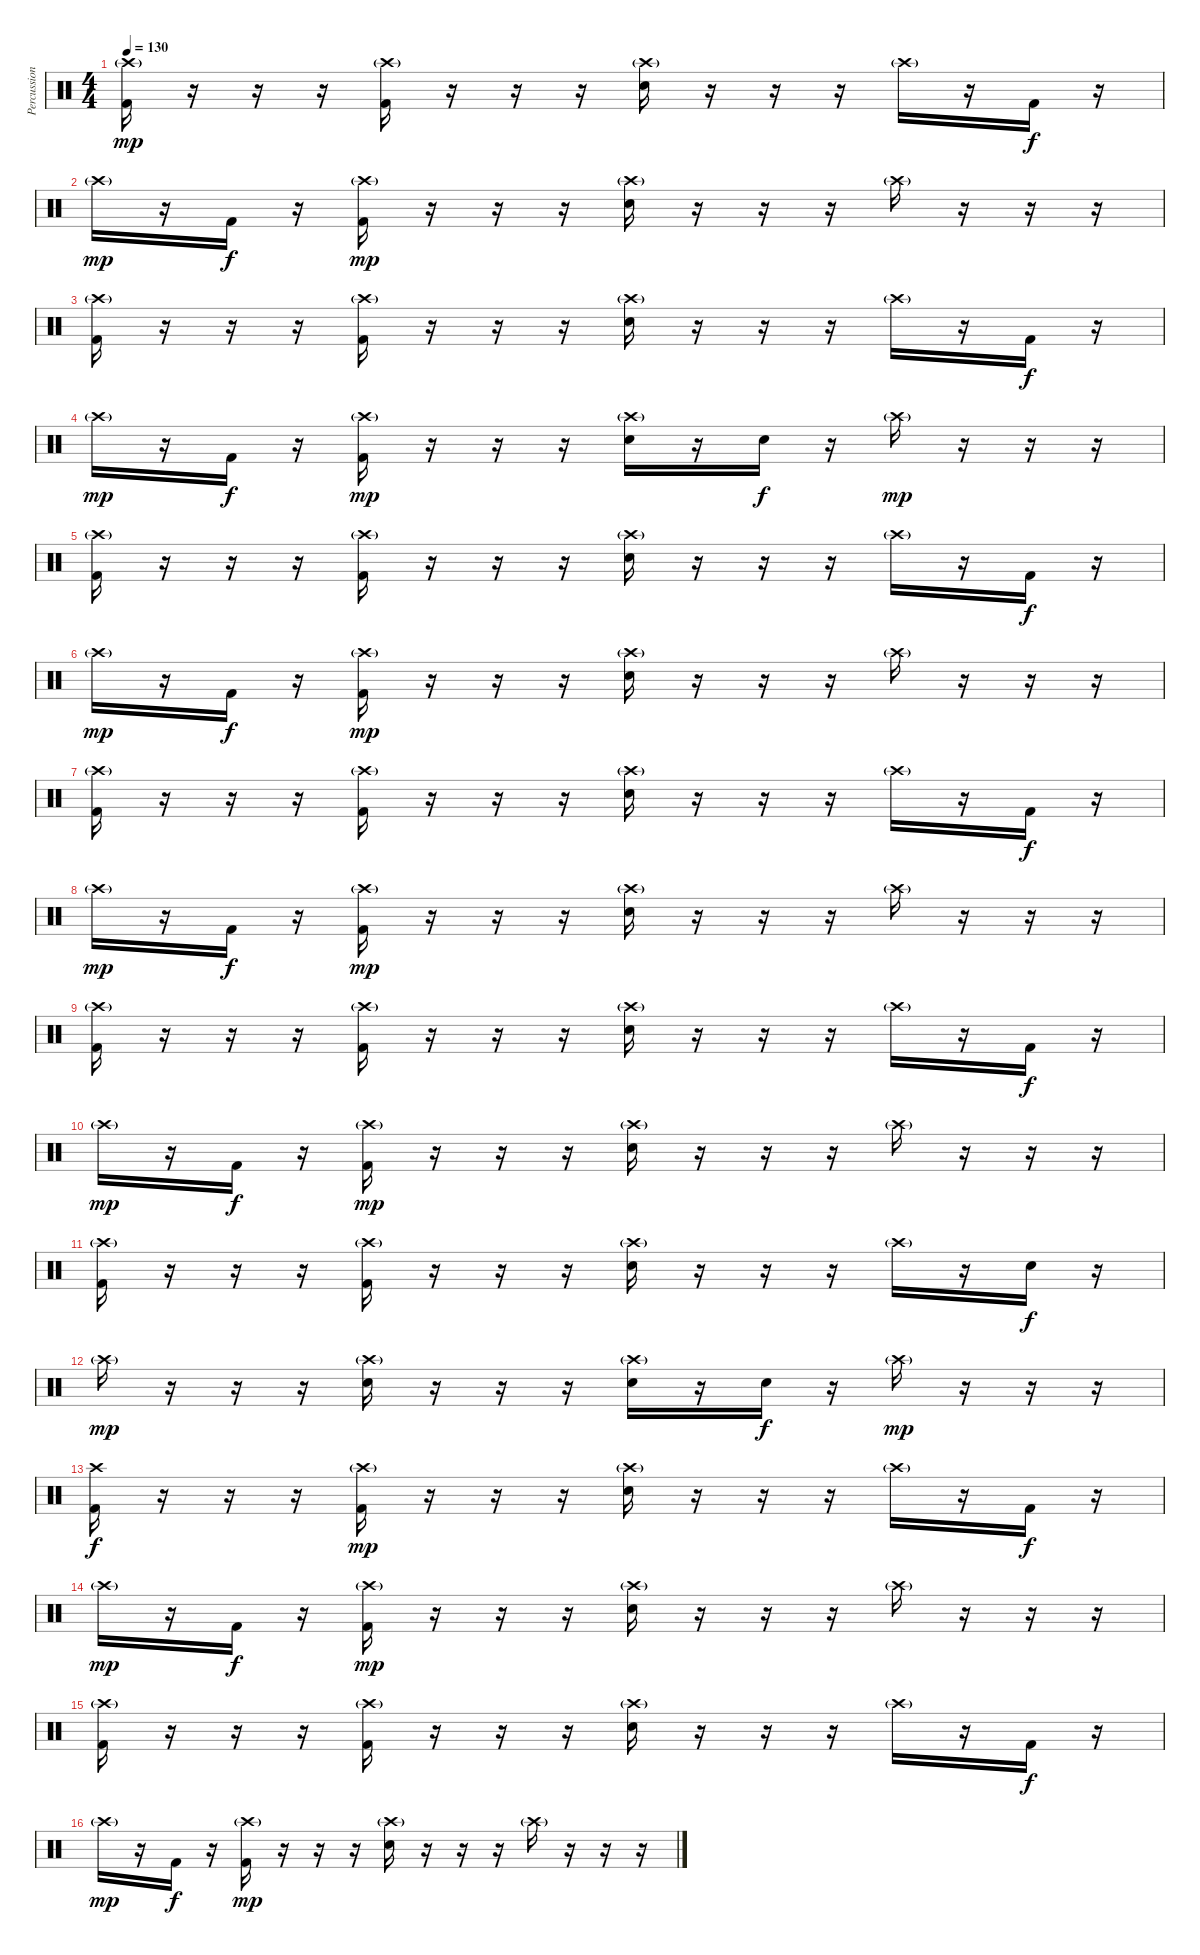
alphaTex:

\track ("Percussion" "Percussion") {instrument percussion}
\staff {score}
\articulation defaults
\ts (4 4)
\tempo 130
\clef neutral
\ks c
("Crash high (hit)"{g} "Kick (hit) 2").16{dy mp} r.16 r.16 r.16 ("Crash high (hit)"{g} "Kick (hit) 2").16 r.16 r.16 r.16 ("Crash high (hit)"{g} "Snare (hit) 2").16 r.16 r.16 r.16 "Crash high (hit)"{g}.16 r.16 "Kick (hit) 2".16{dy f} r.16 |
"Crash high (hit)"{g}.16{dy mp} r.16 "Kick (hit) 2".16{dy f} r.16 ("Crash high (hit)"{g} "Kick (hit) 2").16{dy mp} r.16 r.16 r.16 ("Crash high (hit)"{g} "Snare (hit) 2").16 r.16 r.16 r.16 "Crash high (hit)"{g}.16 r.16 r.16 r.16 |
("Crash high (hit)"{g} "Kick (hit) 2").16 r.16 r.16 r.16 ("Crash high (hit)"{g} "Kick (hit) 2").16 r.16 r.16 r.16 ("Crash high (hit)"{g} "Snare (hit) 2").16 r.16 r.16 r.16 "Crash high (hit)"{g}.16 r.16 "Kick (hit) 2".16{dy f} r.16 |
"Crash high (hit)"{g}.16{dy mp} r.16 "Kick (hit) 2".16{dy f} r.16 ("Crash high (hit)"{g} "Kick (hit) 2").16{dy mp} r.16 r.16 r.16 ("Crash high (hit)"{g} "Snare (hit) 2").16 r.16 "Snare (hit) 2".16{dy f} r.16 "Crash high (hit)"{g}.16{dy mp} r.16 r.16 r.16 |
("Crash high (hit)"{g} "Kick (hit) 2").16 r.16 r.16 r.16 ("Crash high (hit)"{g} "Kick (hit) 2").16 r.16 r.16 r.16 ("Crash high (hit)"{g} "Snare (hit) 2").16 r.16 r.16 r.16 "Crash high (hit)"{g}.16 r.16 "Kick (hit) 2".16{dy f} r.16 |
"Crash high (hit)"{g}.16{dy mp} r.16 "Kick (hit) 2".16{dy f} r.16 ("Crash high (hit)"{g} "Kick (hit) 2").16{dy mp} r.16 r.16 r.16 ("Crash high (hit)"{g} "Snare (hit) 2").16 r.16 r.16 r.16 "Crash high (hit)"{g}.16 r.16 r.16 r.16 |
("Crash high (hit)"{g} "Kick (hit) 2").16 r.16 r.16 r.16 ("Crash high (hit)"{g} "Kick (hit) 2").16 r.16 r.16 r.16 ("Crash high (hit)"{g} "Snare (hit) 2").16 r.16 r.16 r.16 "Crash high (hit)"{g}.16 r.16 "Kick (hit) 2".16{dy f} r.16 |
"Crash high (hit)"{g}.16{dy mp} r.16 "Kick (hit) 2".16{dy f} r.16 ("Crash high (hit)"{g} "Kick (hit) 2").16{dy mp} r.16 r.16 r.16 ("Crash high (hit)"{g} "Snare (hit) 2").16 r.16 r.16 r.16 "Crash high (hit)"{g}.16 r.16 r.16 r.16 |
("Crash high (hit)"{g} "Kick (hit) 2").16 r.16 r.16 r.16 ("Crash high (hit)"{g} "Kick (hit) 2").16 r.16 r.16 r.16 ("Crash high (hit)"{g} "Snare (hit) 2").16 r.16 r.16 r.16 "Crash high (hit)"{g}.16 r.16 "Kick (hit) 2".16{dy f} r.16 |
"Crash high (hit)"{g}.16{dy mp} r.16 "Kick (hit) 2".16{dy f} r.16 ("Crash high (hit)"{g} "Kick (hit) 2").16{dy mp} r.16 r.16 r.16 ("Crash high (hit)"{g} "Snare (hit) 2").16 r.16 r.16 r.16 "Crash high (hit)"{g}.16 r.16 r.16 r.16 |
("Crash high (hit)"{g} "Kick (hit) 2").16 r.16 r.16 r.16 ("Crash high (hit)"{g} "Kick (hit) 2").16 r.16 r.16 r.16 ("Crash high (hit)"{g} "Snare (hit) 2").16 r.16 r.16 r.16 "Crash high (hit)"{g}.16 r.16 "Snare (hit) 2".16{dy f} r.16 |
"Crash high (hit)"{g}.16{dy mp} r.16 r.16 r.16 ("Crash high (hit)"{g} "Snare (hit) 2").16 r.16 r.16 r.16 ("Crash high (hit)"{g} "Snare (hit) 2").16 r.16 "Snare (hit) 2".16{dy f} r.16 "Crash high (hit)"{g}.16{dy mp} r.16 r.16 r.16 |
("Crash high (hit)" "Kick (hit) 2").16{dy f} r.16 r.16 r.16 ("Crash high (hit)"{g} "Kick (hit) 2").16{dy mp} r.16 r.16 r.16 ("Crash high (hit)"{g} "Snare (hit) 2").16 r.16 r.16 r.16 "Crash high (hit)"{g}.16 r.16 "Kick (hit) 2".16{dy f} r.16 |
"Crash high (hit)"{g}.16{dy mp} r.16 "Kick (hit) 2".16{dy f} r.16 ("Crash high (hit)"{g} "Kick (hit) 2").16{dy mp} r.16 r.16 r.16 ("Crash high (hit)"{g} "Snare (hit) 2").16 r.16 r.16 r.16 "Crash high (hit)"{g}.16 r.16 r.16 r.16 |
("Crash high (hit)"{g} "Kick (hit) 2").16 r.16 r.16 r.16 ("Crash high (hit)"{g} "Kick (hit) 2").16 r.16 r.16 r.16 ("Crash high (hit)"{g} "Snare (hit) 2").16 r.16 r.16 r.16 "Crash high (hit)"{g}.16 r.16 "Kick (hit) 2".16{dy f} r.16 |
"Crash high (hit)"{g}.16{dy mp} r.16 "Kick (hit) 2".16{dy f} r.16 ("Crash high (hit)"{g} "Kick (hit) 2").16{dy mp} r.16 r.16 r.16 ("Crash high (hit)"{g} "Snare (hit) 2").16 r.16 r.16 r.16 "Crash high (hit)"{g}.16 r.16 r.16 r.16
